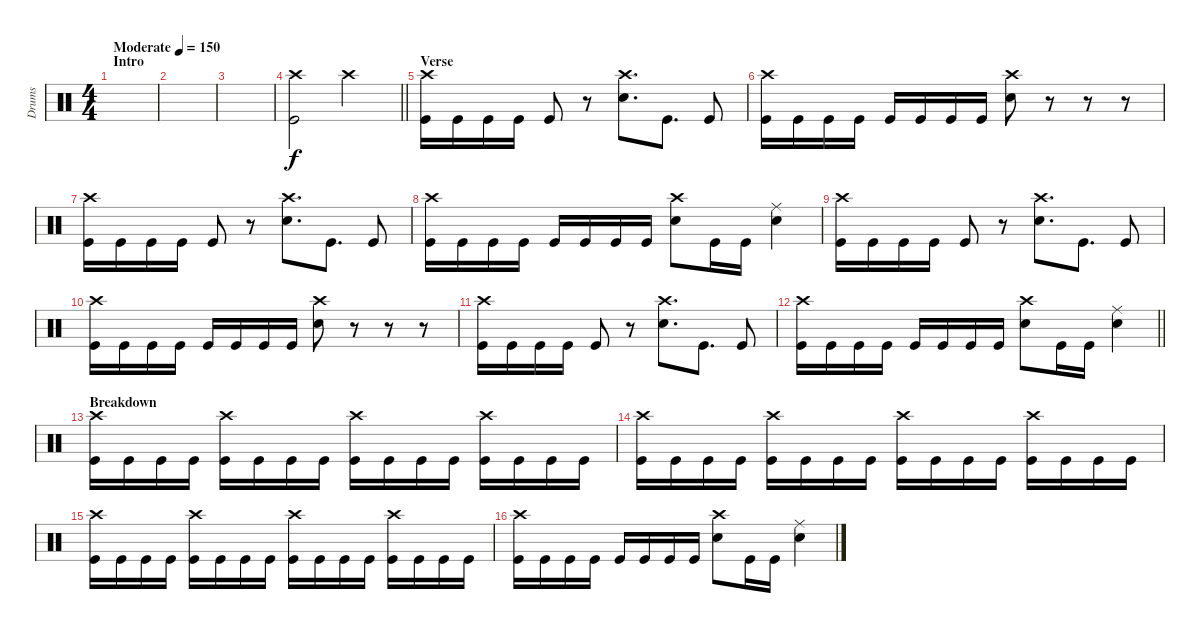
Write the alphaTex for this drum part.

\track ("Drums" "Drums") {instrument percussion}
\staff {score}
\articulation defaults
\ts (4 4)
\section ("" "Intro")
\tempo (150 "Moderate")
\clef neutral
\ks c
|
|
|
\barLineRight lightlight
("Crash high (hit)" "Kick (hit)").2 "Crash high (hit)".2 |
\section ("" "Verse")
("Crash high (hit)" "Kick (hit)").16 "Kick (hit)".16 "Kick (hit)".16 "Kick (hit)".16 "Kick (hit)".8 r.8 ("Crash high (hit)" "Snare (hit) 2").8{d} "Kick (hit)".8{d} "Kick (hit)".8 |
("Crash high (hit)" "Kick (hit)").16 "Kick (hit)".16 "Kick (hit)".16 "Kick (hit)".16 "Kick (hit)".16 "Kick (hit)".16 "Kick (hit)".16 "Kick (hit)".16 ("Crash high (hit)" "Snare (hit) 2").8 r.8 r.8 r.8 |
("Crash high (hit)" "Kick (hit)").16 "Kick (hit)".16 "Kick (hit)".16 "Kick (hit)".16 "Kick (hit)".8 r.8 ("Crash high (hit)" "Snare (hit) 2").8{d} "Kick (hit)".8{d} "Kick (hit)".8 |
("Crash high (hit)" "Kick (hit)").16 "Kick (hit)".16 "Kick (hit)".16 "Kick (hit)".16 "Kick (hit)".16 "Kick (hit)".16 "Kick (hit)".16 "Kick (hit)".16 ("Crash high (hit)" "Snare (hit) 2").8 "Kick (hit)".16 "Kick (hit)".16 ("Ride (middle)" "Snare (hit) 2").4 |
("Crash high (hit)" "Kick (hit)").16 "Kick (hit)".16 "Kick (hit)".16 "Kick (hit)".16 "Kick (hit)".8 r.8 ("Crash high (hit)" "Snare (hit) 2").8{d} "Kick (hit)".8{d} "Kick (hit)".8 |
("Crash high (hit)" "Kick (hit)").16 "Kick (hit)".16 "Kick (hit)".16 "Kick (hit)".16 "Kick (hit)".16 "Kick (hit)".16 "Kick (hit)".16 "Kick (hit)".16 ("Crash high (hit)" "Snare (hit) 2").8 r.8 r.8 r.8 |
("Crash high (hit)" "Kick (hit)").16 "Kick (hit)".16 "Kick (hit)".16 "Kick (hit)".16 "Kick (hit)".8 r.8 ("Crash high (hit)" "Snare (hit) 2").8{d} "Kick (hit)".8{d} "Kick (hit)".8 |
\barLineRight lightlight
("Crash high (hit)" "Kick (hit)").16 "Kick (hit)".16 "Kick (hit)".16 "Kick (hit)".16 "Kick (hit)".16 "Kick (hit)".16 "Kick (hit)".16 "Kick (hit)".16 ("Crash high (hit)" "Snare (hit) 2").8 "Kick (hit)".16 "Kick (hit)".16 ("Ride (middle)" "Snare (hit) 2").4 |
\section ("" "Breakdown")
("Crash high (hit)" "Kick (hit)").16 "Kick (hit)".16 "Kick (hit)".16 "Kick (hit)".16 ("Crash high (hit)" "Kick (hit)").16 "Kick (hit)".16 "Kick (hit)".16 "Kick (hit)".16 ("Crash high (hit)" "Kick (hit)").16 "Kick (hit)".16 "Kick (hit)".16 "Kick (hit)".16 ("Crash high (hit)" "Kick (hit)").16 "Kick (hit)".16 "Kick (hit)".16 "Kick (hit)".16 |
("Crash high (hit)" "Kick (hit)").16 "Kick (hit)".16 "Kick (hit)".16 "Kick (hit)".16 ("Crash high (hit)" "Kick (hit)").16 "Kick (hit)".16 "Kick (hit)".16 "Kick (hit)".16 ("Crash high (hit)" "Kick (hit)").16 "Kick (hit)".16 "Kick (hit)".16 "Kick (hit)".16 ("Crash high (hit)" "Kick (hit)").16 "Kick (hit)".16 "Kick (hit)".16 "Kick (hit)".16 |
("Crash high (hit)" "Kick (hit)").16 "Kick (hit)".16 "Kick (hit)".16 "Kick (hit)".16 ("Crash high (hit)" "Kick (hit)").16 "Kick (hit)".16 "Kick (hit)".16 "Kick (hit)".16 ("Crash high (hit)" "Kick (hit)").16 "Kick (hit)".16 "Kick (hit)".16 "Kick (hit)".16 ("Crash high (hit)" "Kick (hit)").16 "Kick (hit)".16 "Kick (hit)".16 "Kick (hit)".16 |
("Crash high (hit)" "Kick (hit)").16 "Kick (hit)".16 "Kick (hit)".16 "Kick (hit)".16 "Kick (hit)".16 "Kick (hit)".16 "Kick (hit)".16 "Kick (hit)".16 ("Crash high (hit)" "Snare (hit) 2").8 "Kick (hit)".16 "Kick (hit)".16 ("Ride (middle)" "Snare (hit) 2").4
